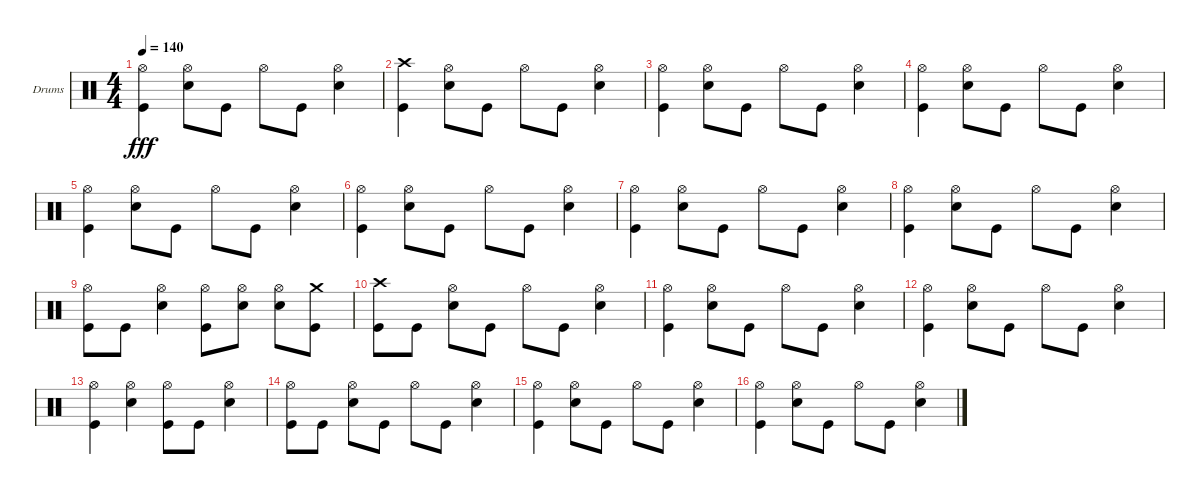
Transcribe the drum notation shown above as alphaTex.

\bracketExtendMode groupsimilarinstruments
\firstSystemTrackNameOrientation horizontal
\otherSystemsTrackNameOrientation horizontal
\track ("Drumkit" "Drums") {instrument percussion}
\staff {score}
\articulation defaults
\ts (4 4)
\tempo 140
\clef neutral
\ks c
("Kick (hit)" "Hi-Hat (open)").4{dy fff} ("Hi-Hat (open)" "Snare (hit) 2").8 "Kick (hit)".8 "Hi-Hat (open)".8 "Kick (hit)".8 ("Snare (hit) 2" "Hi-Hat (open)").4 |
("Kick (hit)" "Crash high (hit)").4 ("Snare (hit) 2" "Hi-Hat (open)").8 "Kick (hit)".8 "Hi-Hat (open)".8 "Kick (hit)".8 ("Snare (hit) 2" "Hi-Hat (open)").4 |
("Kick (hit)" "Hi-Hat (open)").4 ("Hi-Hat (open)" "Snare (hit) 2").8 "Kick (hit)".8 "Hi-Hat (open)".8 "Kick (hit)".8 ("Snare (hit) 2" "Hi-Hat (open)").4 |
("Kick (hit)" "Hi-Hat (open)").4 ("Hi-Hat (open)" "Snare (hit) 2").8 "Kick (hit)".8 "Hi-Hat (open)".8 "Kick (hit)".8 ("Snare (hit) 2" "Hi-Hat (open)").4 |
("Kick (hit)" "Hi-Hat (open)").4 ("Snare (hit) 2" "Hi-Hat (open)").8 "Kick (hit)".8 "Hi-Hat (open)".8 "Kick (hit)".8 ("Snare (hit) 2" "Hi-Hat (open)").4 |
("Kick (hit)" "Hi-Hat (open)").4 ("Snare (hit) 2" "Hi-Hat (open)").8 "Kick (hit)".8 "Hi-Hat (open)".8 "Kick (hit)".8 ("Snare (hit) 2" "Hi-Hat (open)").4 |
("Kick (hit)" "Hi-Hat (open)").4 ("Hi-Hat (open)" "Snare (hit) 2").8 "Kick (hit)".8 "Hi-Hat (open)".8 "Kick (hit)".8 ("Snare (hit) 2" "Hi-Hat (open)").4 |
("Kick (hit)" "Hi-Hat (open)").4 ("Hi-Hat (open)" "Snare (hit) 2").8 "Kick (hit)".8 "Hi-Hat (open)".8 "Kick (hit)".8 ("Snare (hit) 2" "Hi-Hat (open)").4 |
("Kick (hit)" "Hi-Hat (open)").8 "Kick (hit)".8 ("Snare (hit) 2" "Hi-Hat (open)").4 ("Kick (hit)" "Hi-Hat (open)").8 ("Snare (hit) 2" "Hi-Hat (open)").8 ("Snare (hit) 2" "Hi-Hat (open)").8 ("Kick (hit)" "Crash medium (hit)").8 |
("Kick (hit)" "Crash high (hit)").8 "Kick (hit)".8 ("Snare (hit) 2" "Hi-Hat (open)").8 "Kick (hit)".8 "Hi-Hat (open)".8 "Kick (hit)".8 ("Snare (hit) 2" "Hi-Hat (open)").4 |
("Kick (hit)" "Hi-Hat (open)").4 ("Hi-Hat (open)" "Snare (hit) 2").8 "Kick (hit)".8 "Hi-Hat (open)".8 "Kick (hit)".8 ("Snare (hit) 2" "Hi-Hat (open)").4 |
("Kick (hit)" "Hi-Hat (open)").4 ("Hi-Hat (open)" "Snare (hit) 2").8 "Kick (hit)".8 "Hi-Hat (open)".8 "Kick (hit)".8 ("Snare (hit) 2" "Hi-Hat (open)").4 |
("Kick (hit)" "Hi-Hat (open)").4 ("Hi-Hat (open)" "Snare (hit) 2").4 ("Hi-Hat (open)" "Kick (hit)").8 "Kick (hit)".8 ("Snare (hit) 2" "Hi-Hat (open)").4 |
("Kick (hit)" "Hi-Hat (open)").8 "Kick (hit)".8 ("Snare (hit) 2" "Hi-Hat (open)").8 "Kick (hit)".8 "Hi-Hat (open)".8 "Kick (hit)".8 ("Snare (hit) 2" "Hi-Hat (open)").4 |
("Kick (hit)" "Hi-Hat (open)").4 ("Hi-Hat (open)" "Snare (hit) 2").8 "Kick (hit)".8 "Hi-Hat (open)".8 "Kick (hit)".8 ("Snare (hit) 2" "Hi-Hat (open)").4 |
("Kick (hit)" "Hi-Hat (open)").4 ("Hi-Hat (open)" "Snare (hit) 2").8 "Kick (hit)".8 "Hi-Hat (open)".8 "Kick (hit)".8 ("Snare (hit) 2" "Hi-Hat (open)").4
